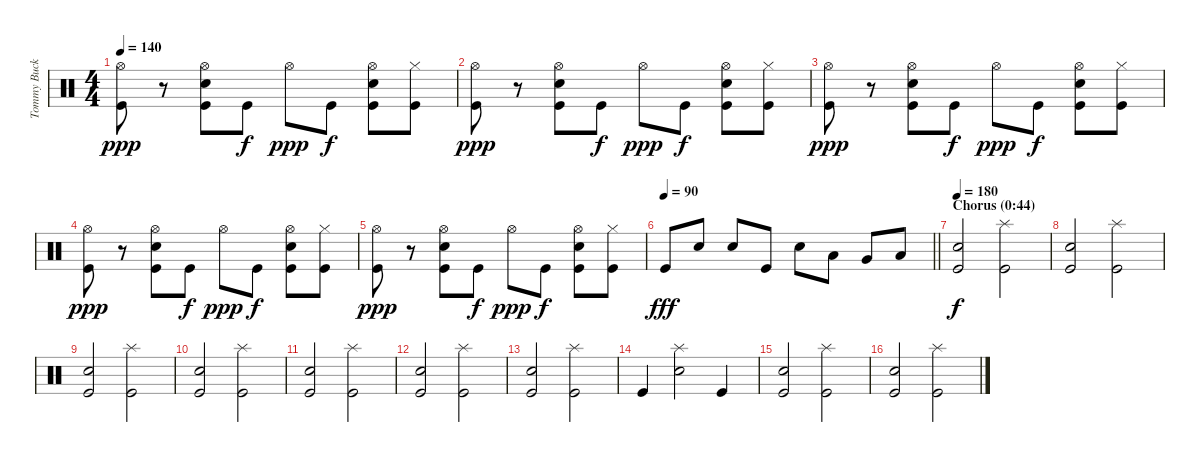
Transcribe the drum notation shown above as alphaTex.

\track ("Tommy Buckly (drums)" "Tommy Buck") {instrument percussion}
\staff {score}
\articulation defaults
\ts (4 4)
\tempo 140
\clef neutral
\ks c
("Hi-Hat (open)" "Kick (hit)").8{dy ppp} r.8 ("Hi-Hat (open)" "Electric Snare (hit)" "Kick (hit)").8 "Kick (hit)".8{dy f} "Hi-Hat (open)".8{dy ppp} "Kick (hit)".8{dy f} ("Hi-Hat (open)" "Electric Snare (hit)" "Kick (hit)").8 ("Hi-Hat (closed)" "Kick (hit)").8 |
("Hi-Hat (open)" "Kick (hit)").8{dy ppp} r.8 ("Hi-Hat (open)" "Electric Snare (hit)" "Kick (hit)").8 "Kick (hit)".8{dy f} "Hi-Hat (open)".8{dy ppp} "Kick (hit)".8{dy f} ("Hi-Hat (open)" "Electric Snare (hit)" "Kick (hit)").8 ("Hi-Hat (closed)" "Kick (hit)").8 |
("Hi-Hat (open)" "Kick (hit)").8{dy ppp} r.8 ("Hi-Hat (open)" "Electric Snare (hit)" "Kick (hit)").8 "Kick (hit)".8{dy f} "Hi-Hat (open)".8{dy ppp} "Kick (hit)".8{dy f} ("Hi-Hat (open)" "Electric Snare (hit)" "Kick (hit)").8 ("Hi-Hat (closed)" "Kick (hit)").8 |
("Hi-Hat (open)" "Kick (hit)").8{dy ppp} r.8 ("Hi-Hat (open)" "Electric Snare (hit)" "Kick (hit)").8 "Kick (hit)".8{dy f} "Hi-Hat (open)".8{dy ppp} "Kick (hit)".8{dy f} ("Hi-Hat (open)" "Electric Snare (hit)" "Kick (hit)").8 ("Hi-Hat (closed)" "Kick (hit)").8 |
("Hi-Hat (open)" "Kick (hit)").8{dy ppp} r.8 ("Hi-Hat (open)" "Electric Snare (hit)" "Kick (hit)").8 "Kick (hit)".8{dy f} "Hi-Hat (open)".8{dy ppp} "Kick (hit)".8{dy f} ("Hi-Hat (open)" "Electric Snare (hit)" "Kick (hit)").8 ("Hi-Hat (closed)" "Kick (hit)").8 |
\tempo 90
\barLineRight lightlight "Kick (hit)".8{dy fff} "Electric Snare (hit)".8 "Electric Snare (hit)".8 "Kick (hit)".8 "Electric Snare (hit)".8 "Low Tom (hit)".8 "Very Low Tom (hit)".8 "Low Floor Tom (hit)".8
|
\section ("" "Chorus (0:44)")
\tempo 180
("Electric Snare (hit)" "Kick (hit)").2{dy f} ("Splash (hit)" "Kick (hit)").2 |
("Electric Snare (hit)" "Kick (hit)").2 ("Splash (hit)" "Kick (hit)").2 |
("Electric Snare (hit)" "Kick (hit)").2 ("Splash (hit)" "Kick (hit)").2 |
("Electric Snare (hit)" "Kick (hit)").2 ("Splash (hit)" "Kick (hit)").2 |
("Electric Snare (hit)" "Kick (hit)").2 ("Splash (hit)" "Kick (hit)").2 |
("Electric Snare (hit)" "Kick (hit)").2 ("Splash (hit)" "Kick (hit)").2 |
("Electric Snare (hit)" "Kick (hit)").2 ("Splash (hit)" "Kick (hit)").2 |
"Kick (hit)".4 ("Splash (hit)" "Electric Snare (hit)").2 "Kick (hit)".4 |
("Electric Snare (hit)" "Kick (hit)").2 ("Splash (hit)" "Kick (hit)").2 |
("Electric Snare (hit)" "Kick (hit)").2 ("Splash (hit)" "Kick (hit)").2
